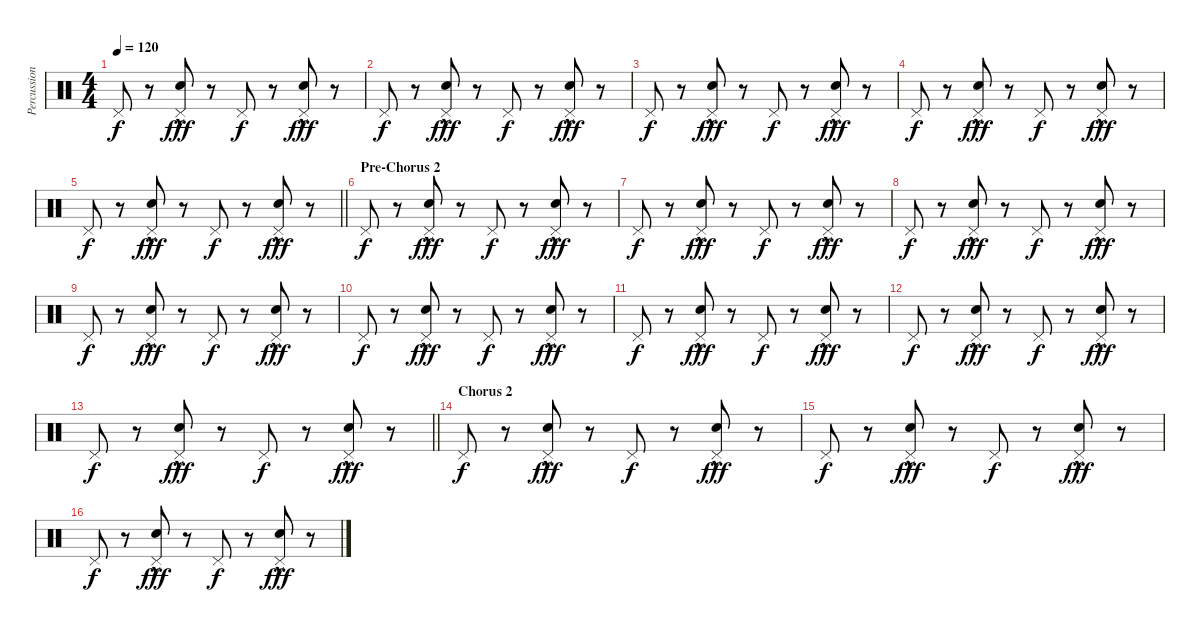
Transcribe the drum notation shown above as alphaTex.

\track ("Percussion" "Percussion") {instrument percussion}
\staff {score}
\articulation defaults
\ts (4 4)
\tempo 120
\clef neutral
\ks c "Pedal Hi-Hat (hit)".8{dy f}
r.8 ("Snare (hit) 2"{hac} "Pedal Hi-Hat (hit)").8{dy fff} r.8 "Pedal Hi-Hat (hit)".8{dy f} r.8 ("Snare (hit) 2"{hac} "Pedal Hi-Hat (hit)").8{dy fff} r.8 |
"Pedal Hi-Hat (hit)".8{dy f} r.8 ("Snare (hit) 2"{hac} "Pedal Hi-Hat (hit)").8{dy fff} r.8 "Pedal Hi-Hat (hit)".8{dy f} r.8 ("Snare (hit) 2"{hac} "Pedal Hi-Hat (hit)").8{dy fff} r.8 |
"Pedal Hi-Hat (hit)".8{dy f} r.8 ("Snare (hit) 2"{hac} "Pedal Hi-Hat (hit)").8{dy fff} r.8 "Pedal Hi-Hat (hit)".8{dy f} r.8 ("Snare (hit) 2"{hac} "Pedal Hi-Hat (hit)").8{dy fff} r.8 |
"Pedal Hi-Hat (hit)".8{dy f} r.8 ("Snare (hit) 2"{hac} "Pedal Hi-Hat (hit)").8{dy fff} r.8 "Pedal Hi-Hat (hit)".8{dy f} r.8 ("Snare (hit) 2"{hac} "Pedal Hi-Hat (hit)").8{dy fff} r.8 |
\barLineRight lightlight "Pedal Hi-Hat (hit)".8{dy f}
r.8 ("Snare (hit) 2"{hac} "Pedal Hi-Hat (hit)").8{dy fff} r.8 "Pedal Hi-Hat (hit)".8{dy f} r.8 ("Snare (hit) 2"{hac} "Pedal Hi-Hat (hit)").8{dy fff} r.8 |
\section ("" "Pre-Chorus 2")
"Pedal Hi-Hat (hit)".8{dy f} r.8 ("Snare (hit) 2"{hac} "Pedal Hi-Hat (hit)").8{dy fff} r.8 "Pedal Hi-Hat (hit)".8{dy f} r.8 ("Snare (hit) 2"{hac} "Pedal Hi-Hat (hit)").8{dy fff} r.8 |
"Pedal Hi-Hat (hit)".8{dy f} r.8 ("Snare (hit) 2"{hac} "Pedal Hi-Hat (hit)").8{dy fff} r.8 "Pedal Hi-Hat (hit)".8{dy f} r.8 ("Snare (hit) 2"{hac} "Pedal Hi-Hat (hit)").8{dy fff} r.8 |
"Pedal Hi-Hat (hit)".8{dy f} r.8 ("Snare (hit) 2"{hac} "Pedal Hi-Hat (hit)").8{dy fff} r.8 "Pedal Hi-Hat (hit)".8{dy f} r.8 ("Snare (hit) 2"{hac} "Pedal Hi-Hat (hit)").8{dy fff} r.8 |
"Pedal Hi-Hat (hit)".8{dy f} r.8 ("Snare (hit) 2"{hac} "Pedal Hi-Hat (hit)").8{dy fff} r.8 "Pedal Hi-Hat (hit)".8{dy f} r.8 ("Snare (hit) 2"{hac} "Pedal Hi-Hat (hit)").8{dy fff} r.8 |
"Pedal Hi-Hat (hit)".8{dy f} r.8 ("Snare (hit) 2"{hac} "Pedal Hi-Hat (hit)").8{dy fff} r.8 "Pedal Hi-Hat (hit)".8{dy f} r.8 ("Snare (hit) 2"{hac} "Pedal Hi-Hat (hit)").8{dy fff} r.8 |
"Pedal Hi-Hat (hit)".8{dy f} r.8 ("Snare (hit) 2"{hac} "Pedal Hi-Hat (hit)").8{dy fff} r.8 "Pedal Hi-Hat (hit)".8{dy f} r.8 ("Snare (hit) 2"{hac} "Pedal Hi-Hat (hit)").8{dy fff} r.8 |
"Pedal Hi-Hat (hit)".8{dy f} r.8 ("Snare (hit) 2"{hac} "Pedal Hi-Hat (hit)").8{dy fff} r.8 "Pedal Hi-Hat (hit)".8{dy f} r.8 ("Snare (hit) 2"{hac} "Pedal Hi-Hat (hit)").8{dy fff} r.8 |
\barLineRight lightlight "Pedal Hi-Hat (hit)".8{dy f}
r.8 ("Snare (hit) 2"{hac} "Pedal Hi-Hat (hit)").8{dy fff} r.8 "Pedal Hi-Hat (hit)".8{dy f} r.8 ("Snare (hit) 2"{hac} "Pedal Hi-Hat (hit)").8{dy fff} r.8 |
\section ("" "Chorus 2")
"Pedal Hi-Hat (hit)".8{dy f} r.8 ("Snare (hit) 2"{hac} "Pedal Hi-Hat (hit)").8{dy fff} r.8 "Pedal Hi-Hat (hit)".8{dy f} r.8 ("Snare (hit) 2"{hac} "Pedal Hi-Hat (hit)").8{dy fff} r.8 |
"Pedal Hi-Hat (hit)".8{dy f} r.8 ("Snare (hit) 2"{hac} "Pedal Hi-Hat (hit)").8{dy fff} r.8 "Pedal Hi-Hat (hit)".8{dy f} r.8 ("Snare (hit) 2"{hac} "Pedal Hi-Hat (hit)").8{dy fff} r.8 |
"Pedal Hi-Hat (hit)".8{dy f} r.8 ("Snare (hit) 2"{hac} "Pedal Hi-Hat (hit)").8{dy fff} r.8 "Pedal Hi-Hat (hit)".8{dy f} r.8 ("Snare (hit) 2"{hac} "Pedal Hi-Hat (hit)").8{dy fff} r.8
